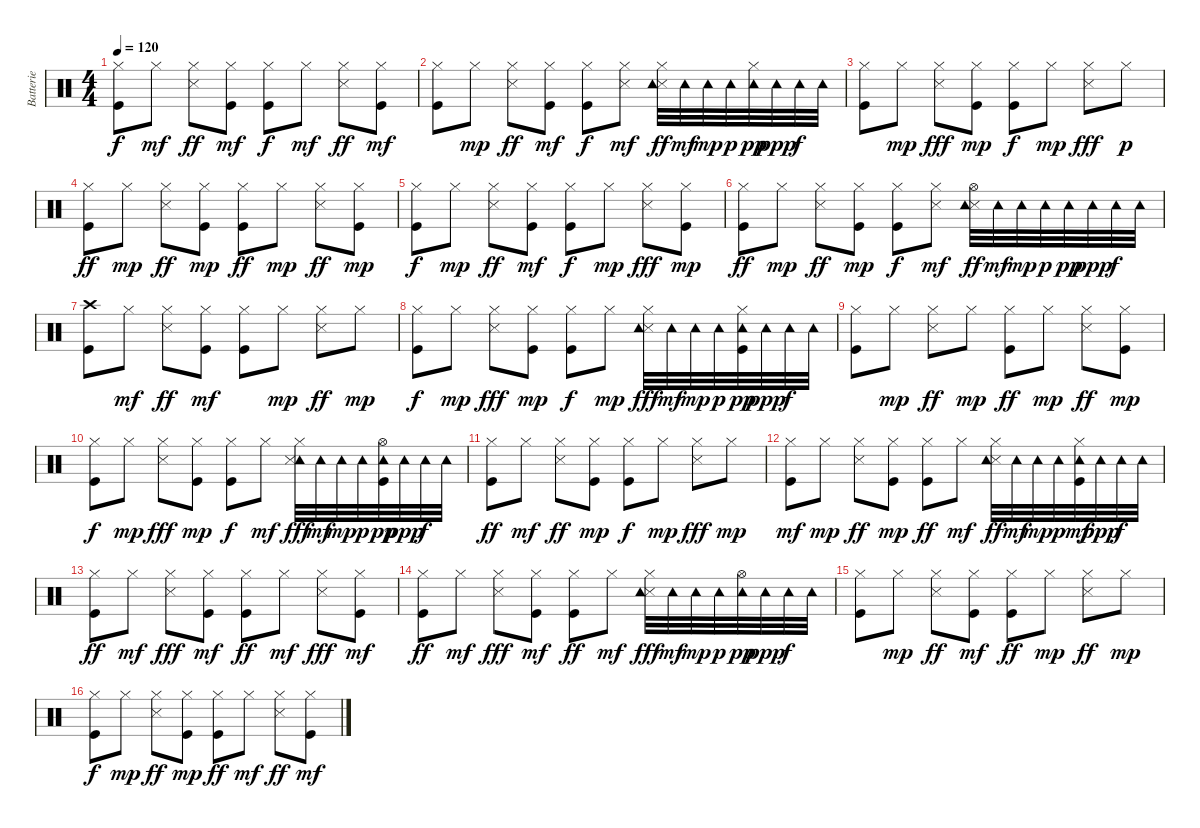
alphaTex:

\track ("Batterie" "Batterie") {instrument percussion}
\staff {score}
\articulation defaults
\ts (4 4)
\tempo 120
\clef neutral
\ks c
("Kick (hit)" "Hi-Hat (closed)").8{dy f} "Hi-Hat (closed)".8{dy mf} ("Snare (side stick) 3" "Hi-Hat (closed)").8{dy ff} ("Kick (hit)" "Hi-Hat (closed)").8{dy mf} ("Kick (hit)" "Hi-Hat (closed)").8{dy f} "Hi-Hat (closed)".8{dy mf} ("Snare (side stick) 3" "Hi-Hat (closed)").8{dy ff} ("Kick (hit)" "Hi-Hat (closed)").8{dy mf} |
("Kick (hit)" "Hi-Hat (closed)").8 "Hi-Hat (closed)".8{dy mp} ("Snare (side stick) 3" "Hi-Hat (closed)").8{dy ff} ("Kick (hit)" "Hi-Hat (closed)").8{dy mf} ("Kick (hit)" "Hi-Hat (closed)").8{dy f} ("Snare (side stick) 3" "Hi-Hat (closed)").8{dy mf} ("Snare (side stick) 3" "Tambourine (hit)" "Hi-Hat (closed)").32{dy ff} "Tambourine (hit)".32{dy mf} "Tambourine (hit)".32{dy mp} "Tambourine (hit)".32{dy p} ("Hi-Hat (closed)" "Tambourine (hit)").32{dy pp} "Tambourine (hit)".32{dy ppp} "Tambourine (hit)".32{dy f} "Tambourine (hit)".32 |
("Kick (hit)" "Hi-Hat (closed)").8 "Hi-Hat (closed)".8{dy mp} ("Snare (side stick) 3" "Hi-Hat (closed)").8{dy fff} ("Kick (hit)" "Hi-Hat (closed)").8{dy mp} ("Kick (hit)" "Hi-Hat (closed)").8{dy f} "Hi-Hat (closed)".8{dy mp} ("Snare (side stick) 3" "Hi-Hat (closed)").8{dy fff} "Hi-Hat (closed)".8{dy p} |
("Kick (hit)" "Hi-Hat (closed)").8{dy ff} "Hi-Hat (closed)".8{dy mp} ("Snare (side stick) 3" "Hi-Hat (closed)").8{dy ff} ("Kick (hit)" "Hi-Hat (closed)").8{dy mp} ("Kick (hit)" "Hi-Hat (closed)").8{dy ff} "Hi-Hat (closed)".8{dy mp} ("Snare (side stick) 3" "Hi-Hat (closed)").8{dy ff} ("Kick (hit)" "Hi-Hat (closed)").8{dy mp} |
("Kick (hit)" "Hi-Hat (closed)").8{dy f} "Hi-Hat (closed)".8{dy mp} ("Snare (side stick) 3" "Hi-Hat (closed)").8{dy ff} ("Kick (hit)" "Hi-Hat (closed)").8{dy mf} ("Kick (hit)" "Hi-Hat (closed)").8{dy f} "Hi-Hat (closed)".8{dy mp} ("Snare (side stick) 3" "Hi-Hat (closed)").8{dy fff} ("Kick (hit)" "Hi-Hat (closed)").8{dy mp} |
("Kick (hit)" "Hi-Hat (closed)").8{dy ff} "Hi-Hat (closed)".8{dy mp} ("Snare (side stick) 3" "Hi-Hat (closed)").8{dy ff} ("Kick (hit)" "Hi-Hat (closed)").8{dy mp} ("Kick (hit)" "Hi-Hat (closed)").8{dy f} ("Snare (side stick) 3" "Hi-Hat (closed)").8{dy mf} ("Snare (side stick) 3" "Tambourine (hit)" "Hi-Hat (open)").32{dy ff} "Tambourine (hit)".32{dy mf} "Tambourine (hit)".32{dy mp} "Tambourine (hit)".32{dy p} "Tambourine (hit)".32{dy pp} "Tambourine (hit)".32{dy ppp} "Tambourine (hit)".32{dy f} "Tambourine (hit)".32 |
("Kick (hit)" "Crash high (hit)").8 "Hi-Hat (closed)".8{dy mf} ("Snare (side stick) 3" "Hi-Hat (closed)").8{dy ff} ("Kick (hit)" "Hi-Hat (closed)").8{dy mf} ("Kick (hit)" "Hi-Hat (closed)").8 "Hi-Hat (closed)".8{dy mp} ("Snare (side stick) 3" "Hi-Hat (closed)").8{dy ff} "Hi-Hat (closed)".8{dy mp} |
("Kick (hit)" "Hi-Hat (closed)").8{dy f} "Hi-Hat (closed)".8{dy mp} ("Snare (side stick) 3" "Hi-Hat (closed)").8{dy fff} ("Kick (hit)" "Hi-Hat (closed)").8{dy mp} ("Kick (hit)" "Hi-Hat (closed)").8{dy f} "Hi-Hat (closed)".8{dy mp} ("Snare (side stick) 3" "Tambourine (hit)" "Hi-Hat (closed)").32{dy fff} "Tambourine (hit)".32{dy mf} "Tambourine (hit)".32{dy mp} "Tambourine (hit)".32{dy p} ("Kick (hit)" "Hi-Hat (closed)" "Tambourine (hit)").32{dy pp} "Tambourine (hit)".32{dy ppp} "Tambourine (hit)".32{dy f} "Tambourine (hit)".32 |
("Kick (hit)" "Hi-Hat (closed)").8 "Hi-Hat (closed)".8{dy mp} ("Snare (side stick) 3" "Hi-Hat (closed)").8{dy ff} "Hi-Hat (closed)".8{dy mp} ("Kick (hit)" "Hi-Hat (closed)").8{dy ff} "Hi-Hat (closed)".8{dy mp} ("Snare (side stick) 3" "Hi-Hat (closed)").8{dy ff} ("Kick (hit)" "Hi-Hat (closed)").8{dy mp} |
("Kick (hit)" "Hi-Hat (closed)").8{dy f} "Hi-Hat (closed)".8{dy mp} ("Snare (side stick) 3" "Hi-Hat (closed)").8{dy fff} ("Kick (hit)" "Hi-Hat (closed)").8{dy mp} ("Kick (hit)" "Hi-Hat (closed)").8{dy f} "Hi-Hat (closed)".8{dy mf} ("Hi-Hat (closed)" "Tambourine (hit)" "Snare (side stick) 3").32{dy fff} "Tambourine (hit)".32{dy mf} "Tambourine (hit)".32{dy mp} "Tambourine (hit)".32{dy p} ("Kick (hit)" "Hi-Hat (open)" "Tambourine (hit)").32{dy pp} "Tambourine (hit)".32{dy ppp} "Tambourine (hit)".32{dy f} "Tambourine (hit)".32 |
("Kick (hit)" "Hi-Hat (closed)").8{dy ff} "Hi-Hat (closed)".8{dy mf} ("Snare (side stick) 3" "Hi-Hat (closed)").8{dy ff} ("Kick (hit)" "Hi-Hat (closed)").8{dy mp} ("Kick (hit)" "Hi-Hat (closed)").8{dy f} "Hi-Hat (closed)".8{dy mp} ("Snare (side stick) 3" "Hi-Hat (closed)").8{dy fff} "Hi-Hat (closed)".8{dy mp} |
("Kick (hit)" "Hi-Hat (closed)").8{dy mf} "Hi-Hat (closed)".8{dy mp} ("Snare (side stick) 3" "Hi-Hat (closed)").8{dy ff} ("Kick (hit)" "Hi-Hat (closed)").8{dy mp} ("Kick (hit)" "Hi-Hat (closed)").8{dy ff} "Hi-Hat (closed)".8{dy mf} ("Snare (side stick) 3" "Hi-Hat (closed)" "Tambourine (hit)").32{dy ff} "Tambourine (hit)".32{dy mf} "Tambourine (hit)".32{dy mp} "Tambourine (hit)".32{dy p} ("Kick (hit)" "Tambourine (hit)" "Hi-Hat (closed)").32{dy mf} "Tambourine (hit)".32{dy ppp} "Tambourine (hit)".32{dy f} "Tambourine (hit)".32 |
("Kick (hit)" "Hi-Hat (closed)").8{dy ff} "Hi-Hat (closed)".8{dy mf} ("Snare (side stick) 3" "Hi-Hat (closed)").8{dy fff} ("Kick (hit)" "Hi-Hat (closed)").8{dy mf} ("Kick (hit)" "Hi-Hat (closed)").8{dy ff} "Hi-Hat (closed)".8{dy mf} ("Snare (side stick) 3" "Hi-Hat (closed)").8{dy fff} ("Kick (hit)" "Hi-Hat (closed)").8{dy mf} |
("Kick (hit)" "Hi-Hat (closed)").8{dy ff} "Hi-Hat (closed)".8{dy mf} ("Snare (side stick) 3" "Hi-Hat (closed)").8{dy fff} ("Kick (hit)" "Hi-Hat (closed)").8{dy mf} ("Kick (hit)" "Hi-Hat (closed)").8{dy ff} "Hi-Hat (closed)".8{dy mf} ("Snare (side stick) 3" "Tambourine (hit)" "Hi-Hat (closed)").32{dy fff} "Tambourine (hit)".32{dy mf} "Tambourine (hit)".32{dy mp} "Tambourine (hit)".32{dy p} ("Hi-Hat (open)" "Tambourine (hit)").32{dy pp} "Tambourine (hit)".32{dy ppp} "Tambourine (hit)".32{dy f} "Tambourine (hit)".32 |
("Kick (hit)" "Hi-Hat (closed)").8 "Hi-Hat (closed)".8{dy mp} ("Snare (side stick) 3" "Hi-Hat (closed)").8{dy ff} ("Kick (hit)" "Hi-Hat (closed)").8{dy mf} ("Kick (hit)" "Hi-Hat (closed)").8{dy ff} "Hi-Hat (closed)".8{dy mp} ("Snare (side stick) 3" "Hi-Hat (closed)").8{dy ff} "Hi-Hat (closed)".8{dy mp} |
("Kick (hit)" "Hi-Hat (closed)").8{dy f} "Hi-Hat (closed)".8{dy mp} ("Snare (side stick) 3" "Hi-Hat (closed)").8{dy ff} ("Kick (hit)" "Hi-Hat (closed)").8{dy mp} ("Kick (hit)" "Hi-Hat (closed)").8{dy ff} "Hi-Hat (closed)".8{dy mf} ("Snare (side stick) 3" "Hi-Hat (closed)").8{dy ff} ("Kick (hit)" "Hi-Hat (closed)").8{dy mf}
